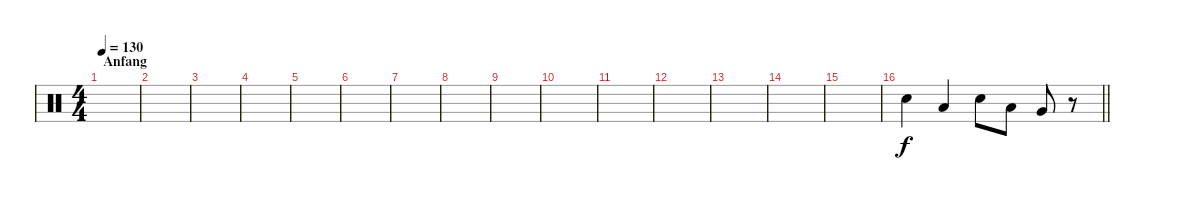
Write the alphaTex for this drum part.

\track "" {instrument percussion}
\staff {score}
\articulation defaults
\ts (4 4)
\section ("" "Anfang")
\tempo 130
\clef neutral
\ks c
|
|
|
|
|
|
|
|
|
|
|
|
|
|
|
\barLineRight lightlight "Electric Snare (hit)".4 "Low Tom (hit)".4 "Electric Snare (hit)".8 "Low Tom (hit)".8 "Very Low Tom (hit)".8
r.8
